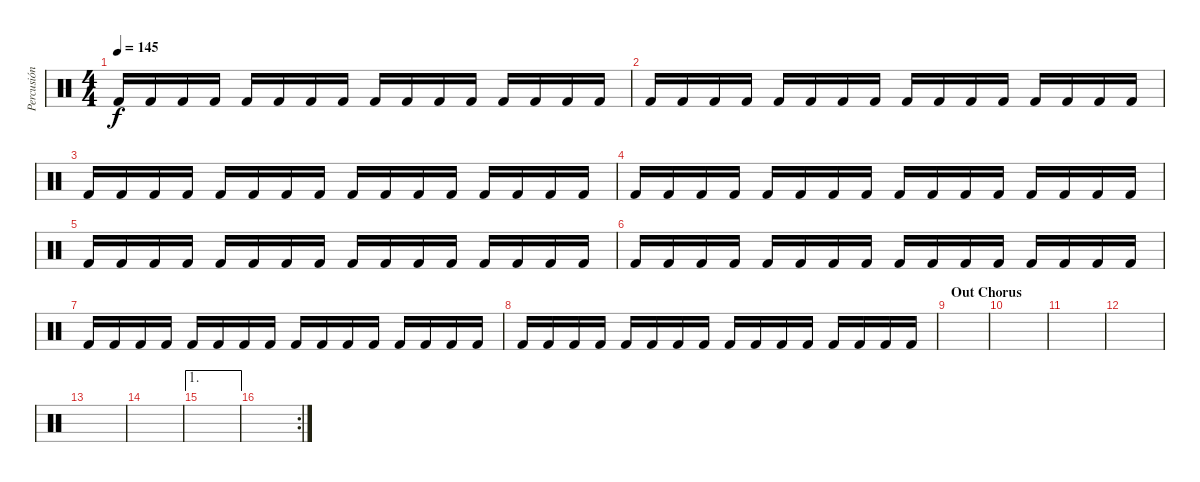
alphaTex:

\track ("Percusión" "Percusión") {instrument percussion}
\staff {score}
\articulation defaults
\ts (4 4)
\tempo 145
\clef neutral
\ks c "Kick (hit) 2".16{dy f} "Kick (hit) 2".16 "Kick (hit) 2".16 "Kick (hit) 2".16 "Kick (hit) 2".16 "Kick (hit) 2".16 "Kick (hit) 2".16 "Kick (hit) 2".16 "Kick (hit) 2".16 "Kick (hit) 2".16 "Kick (hit) 2".16 "Kick (hit) 2".16 "Kick (hit) 2".16 "Kick (hit) 2".16 "Kick (hit) 2".16 "Kick (hit) 2".16
|
"Kick (hit) 2".16 "Kick (hit) 2".16 "Kick (hit) 2".16 "Kick (hit) 2".16 "Kick (hit) 2".16 "Kick (hit) 2".16 "Kick (hit) 2".16 "Kick (hit) 2".16 "Kick (hit) 2".16 "Kick (hit) 2".16 "Kick (hit) 2".16 "Kick (hit) 2".16 "Kick (hit) 2".16 "Kick (hit) 2".16 "Kick (hit) 2".16 "Kick (hit) 2".16 |
"Kick (hit) 2".16 "Kick (hit) 2".16 "Kick (hit) 2".16 "Kick (hit) 2".16 "Kick (hit) 2".16 "Kick (hit) 2".16 "Kick (hit) 2".16 "Kick (hit) 2".16 "Kick (hit) 2".16 "Kick (hit) 2".16 "Kick (hit) 2".16 "Kick (hit) 2".16 "Kick (hit) 2".16 "Kick (hit) 2".16 "Kick (hit) 2".16 "Kick (hit) 2".16 |
"Kick (hit) 2".16 "Kick (hit) 2".16 "Kick (hit) 2".16 "Kick (hit) 2".16 "Kick (hit) 2".16 "Kick (hit) 2".16 "Kick (hit) 2".16 "Kick (hit) 2".16 "Kick (hit) 2".16 "Kick (hit) 2".16 "Kick (hit) 2".16 "Kick (hit) 2".16 "Kick (hit) 2".16 "Kick (hit) 2".16 "Kick (hit) 2".16 "Kick (hit) 2".16 |
"Kick (hit) 2".16 "Kick (hit) 2".16 "Kick (hit) 2".16 "Kick (hit) 2".16 "Kick (hit) 2".16 "Kick (hit) 2".16 "Kick (hit) 2".16 "Kick (hit) 2".16 "Kick (hit) 2".16 "Kick (hit) 2".16 "Kick (hit) 2".16 "Kick (hit) 2".16 "Kick (hit) 2".16 "Kick (hit) 2".16 "Kick (hit) 2".16 "Kick (hit) 2".16 |
"Kick (hit) 2".16 "Kick (hit) 2".16 "Kick (hit) 2".16 "Kick (hit) 2".16 "Kick (hit) 2".16 "Kick (hit) 2".16 "Kick (hit) 2".16 "Kick (hit) 2".16 "Kick (hit) 2".16 "Kick (hit) 2".16 "Kick (hit) 2".16 "Kick (hit) 2".16 "Kick (hit) 2".16 "Kick (hit) 2".16 "Kick (hit) 2".16 "Kick (hit) 2".16 |
"Kick (hit) 2".16 "Kick (hit) 2".16 "Kick (hit) 2".16 "Kick (hit) 2".16 "Kick (hit) 2".16 "Kick (hit) 2".16 "Kick (hit) 2".16 "Kick (hit) 2".16 "Kick (hit) 2".16 "Kick (hit) 2".16 "Kick (hit) 2".16 "Kick (hit) 2".16 "Kick (hit) 2".16 "Kick (hit) 2".16 "Kick (hit) 2".16 "Kick (hit) 2".16 |
"Kick (hit) 2".16 "Kick (hit) 2".16 "Kick (hit) 2".16 "Kick (hit) 2".16 "Kick (hit) 2".16 "Kick (hit) 2".16 "Kick (hit) 2".16 "Kick (hit) 2".16 "Kick (hit) 2".16 "Kick (hit) 2".16 "Kick (hit) 2".16 "Kick (hit) 2".16 "Kick (hit) 2".16 "Kick (hit) 2".16 "Kick (hit) 2".16 "Kick (hit) 2".16 |
\section ("" "Out Chorus")
|
|
|
|
|
|
\ae 1
|
\rc 2
